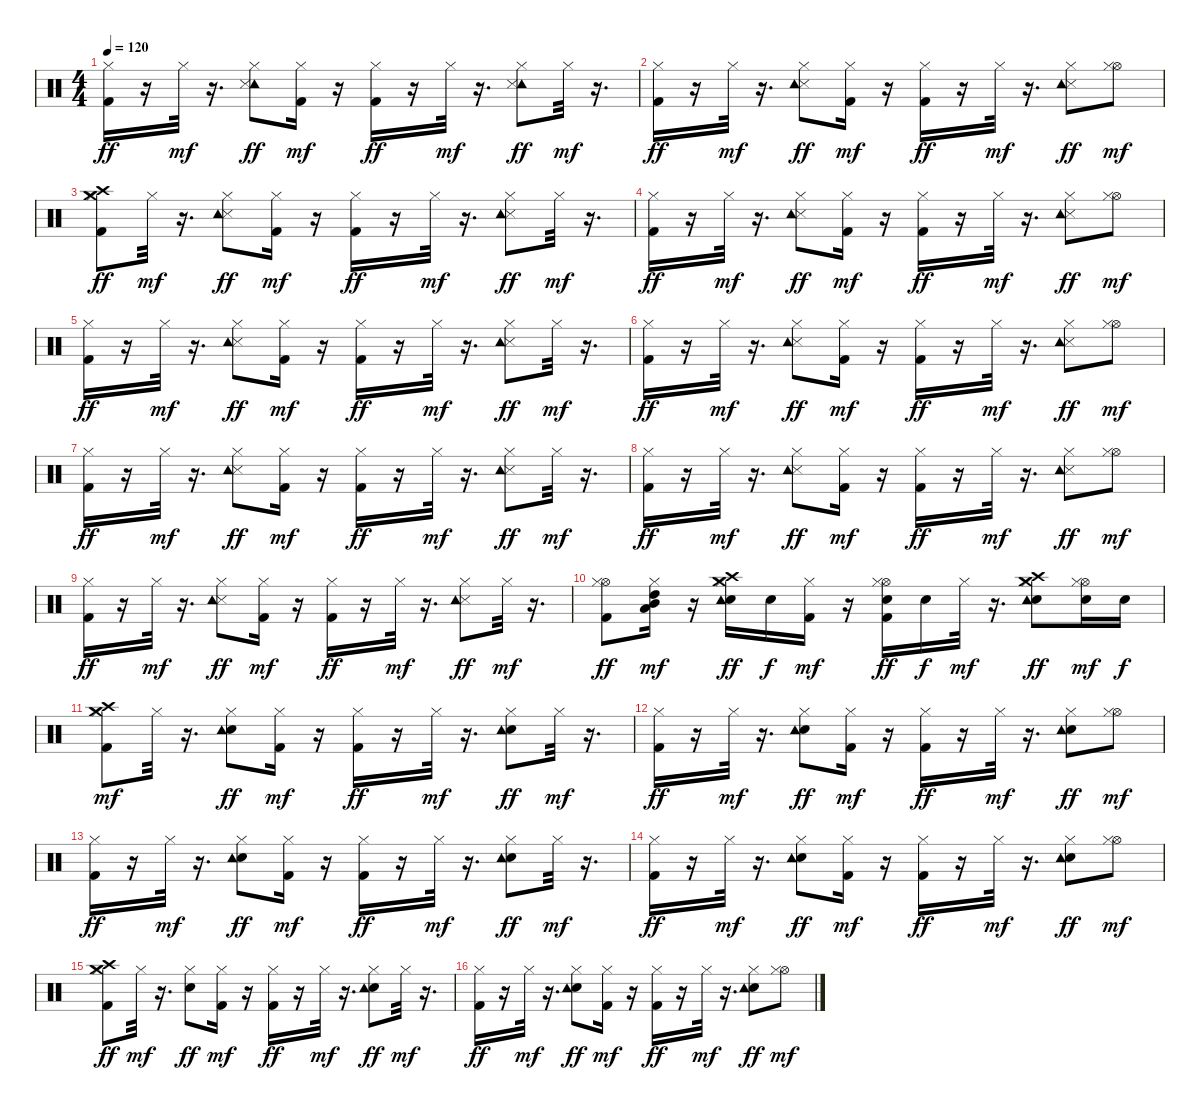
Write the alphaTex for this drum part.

\track "" {instrument percussion}
\staff {score}
\articulation defaults
\ts (4 4)
\tempo 120
\clef neutral
\ks c
("Hi-Hat (closed)" "Kick (hit) 2").16{dy ff} r.16 "Hi-Hat (closed)".32{dy mf} r.16{d} ("Tambourine (hit)" "Snare (side stick) 3" "Hi-Hat (closed)").8{dy ff} ("Hi-Hat (closed)" "Kick (hit) 2").16{dy mf} r.16 ("Hi-Hat (closed)" "Kick (hit) 2").16{dy ff} r.16 "Hi-Hat (closed)".32{dy mf} r.16{d} ("Tambourine (hit)" "Snare (side stick) 3" "Hi-Hat (closed)").8{dy ff} "Hi-Hat (closed)".32{dy mf} r.16{d} |
("Hi-Hat (closed)" "Kick (hit) 2").16{dy ff} r.16 "Hi-Hat (closed)".32{dy mf} r.16{d} ("Snare (side stick) 3" "Tambourine (hit)" "Hi-Hat (closed)").8{dy ff} ("Hi-Hat (closed)" "Kick (hit) 2").16{dy mf} r.16 ("Hi-Hat (closed)" "Kick (hit) 2").16{dy ff} r.16 "Hi-Hat (closed)".32{dy mf} r.16{d} ("Snare (side stick) 3" "Tambourine (hit)" "Hi-Hat (closed)").8{dy ff} ("Hi-Hat (open)" "Hi-Hat (closed)").8{dy mf} |
("Crash medium (hit)" "Crash high (hit)" "Hi-Hat (closed)" "Kick (hit) 2").8{dy ff} "Hi-Hat (closed)".32{dy mf} r.16{d} ("Snare (side stick) 3" "Tambourine (hit)" "Hi-Hat (closed)").8{dy ff} ("Hi-Hat (closed)" "Kick (hit) 2").16{dy mf} r.16 ("Hi-Hat (closed)" "Kick (hit) 2").16{dy ff} r.16 "Hi-Hat (closed)".32{dy mf} r.16{d} ("Snare (side stick) 3" "Tambourine (hit)" "Hi-Hat (closed)").8{dy ff} "Hi-Hat (closed)".32{dy mf} r.16{d} |
("Hi-Hat (closed)" "Kick (hit) 2").16{dy ff} r.16 "Hi-Hat (closed)".32{dy mf} r.16{d} ("Snare (side stick) 3" "Tambourine (hit)" "Hi-Hat (closed)").8{dy ff} ("Hi-Hat (closed)" "Kick (hit) 2").16{dy mf} r.16 ("Hi-Hat (closed)" "Kick (hit) 2").16{dy ff} r.16 "Hi-Hat (closed)".32{dy mf} r.16{d} ("Snare (side stick) 3" "Tambourine (hit)" "Hi-Hat (closed)").8{dy ff} ("Hi-Hat (open)" "Hi-Hat (closed)").8{dy mf} |
("Hi-Hat (closed)" "Kick (hit) 2").16{dy ff} r.16 "Hi-Hat (closed)".32{dy mf} r.16{d} ("Snare (side stick) 3" "Tambourine (hit)" "Hi-Hat (closed)").8{dy ff} ("Hi-Hat (closed)" "Kick (hit) 2").16{dy mf} r.16 ("Hi-Hat (closed)" "Kick (hit) 2").16{dy ff} r.16 "Hi-Hat (closed)".32{dy mf} r.16{d} ("Snare (side stick) 3" "Tambourine (hit)" "Hi-Hat (closed)").8{dy ff} "Hi-Hat (closed)".32{dy mf} r.16{d} |
("Hi-Hat (closed)" "Kick (hit) 2").16{dy ff} r.16 "Hi-Hat (closed)".32{dy mf} r.16{d} ("Snare (side stick) 3" "Tambourine (hit)" "Hi-Hat (closed)").8{dy ff} ("Hi-Hat (closed)" "Kick (hit) 2").16{dy mf} r.16 ("Hi-Hat (closed)" "Kick (hit) 2").16{dy ff} r.16 "Hi-Hat (closed)".32{dy mf} r.16{d} ("Snare (side stick) 3" "Tambourine (hit)" "Hi-Hat (closed)").8{dy ff} ("Hi-Hat (open)" "Hi-Hat (closed)").8{dy mf} |
("Hi-Hat (closed)" "Kick (hit) 2").16{dy ff} r.16 "Hi-Hat (closed)".32{dy mf} r.16{d} ("Snare (side stick) 3" "Tambourine (hit)" "Hi-Hat (closed)").8{dy ff} ("Hi-Hat (closed)" "Kick (hit) 2").16{dy mf} r.16 ("Hi-Hat (closed)" "Kick (hit) 2").16{dy ff} r.16 "Hi-Hat (closed)".32{dy mf} r.16{d} ("Snare (side stick) 3" "Tambourine (hit)" "Hi-Hat (closed)").8{dy ff} "Hi-Hat (closed)".32{dy mf} r.16{d} |
("Hi-Hat (closed)" "Kick (hit) 2").16{dy ff} r.16 "Hi-Hat (closed)".32{dy mf} r.16{d} ("Snare (side stick) 3" "Tambourine (hit)" "Hi-Hat (closed)").8{dy ff} ("Hi-Hat (closed)" "Kick (hit) 2").16{dy mf} r.16 ("Hi-Hat (closed)" "Kick (hit) 2").16{dy ff} r.16 "Hi-Hat (closed)".32{dy mf} r.16{d} ("Snare (side stick) 3" "Tambourine (hit)" "Hi-Hat (closed)").8{dy ff} ("Hi-Hat (open)" "Hi-Hat (closed)").8{dy mf} |
("Hi-Hat (closed)" "Kick (hit) 2").16{dy ff} r.16 "Hi-Hat (closed)".32{dy mf} r.16{d} ("Snare (side stick) 3" "Tambourine (hit)" "Hi-Hat (closed)").8{dy ff} ("Hi-Hat (closed)" "Kick (hit) 2").16{dy mf} r.16 ("Hi-Hat (closed)" "Kick (hit) 2").16{dy ff} r.16 "Hi-Hat (closed)".32{dy mf} r.16{d} ("Snare (side stick) 3" "Tambourine (hit)" "Hi-Hat (closed)").8{dy ff} "Hi-Hat (closed)".32{dy mf} r.16{d} |
("Hi-Hat (open)" "Hi-Hat (closed)" "Kick (hit) 2").8{dy ff} ("High Tom (hit)" "Mid Tom (hit)" "Low Tom (hit)" "Hi-Hat (closed)").16{dy mf} r.16 ("Crash medium (hit)" "Crash high (hit)" "Snare (hit) 2" "Tambourine (hit)" "Hi-Hat (closed)").16{dy ff} "Snare (hit) 2".16{dy f} ("Hi-Hat (closed)" "Kick (hit) 2").16{dy mf} r.16 ("Hi-Hat (open)" "Snare (hit) 2" "Hi-Hat (closed)" "Kick (hit) 2").16{dy ff} "Snare (hit) 2".16{dy f} "Hi-Hat (closed)".32{dy mf} r.16{d} ("Crash medium (hit)" "Crash high (hit)" "Snare (hit) 2" "Tambourine (hit)" "Hi-Hat (closed)").8{dy ff} ("Hi-Hat (open)" "Snare (hit) 2" "Hi-Hat (closed)").16{dy mf} "Snare (hit) 2".16{dy f} |
("Hi-Hat (closed)" "Crash medium (hit)" "Crash high (hit)" "Kick (hit) 2").8{dy mf} "Hi-Hat (closed)".32 r.16{d} ("Snare (hit) 2" "Tambourine (hit)" "Hi-Hat (closed)").8{dy ff} ("Hi-Hat (closed)" "Kick (hit) 2").16{dy mf} r.16 ("Hi-Hat (closed)" "Kick (hit) 2").16{dy ff} r.16 "Hi-Hat (closed)".32{dy mf} r.16{d} ("Snare (hit) 2" "Tambourine (hit)" "Hi-Hat (closed)").8{dy ff} "Hi-Hat (closed)".32{dy mf} r.16{d} |
("Hi-Hat (closed)" "Kick (hit) 2").16{dy ff} r.16 "Hi-Hat (closed)".32{dy mf} r.16{d} ("Snare (hit) 2" "Tambourine (hit)" "Hi-Hat (closed)").8{dy ff} ("Hi-Hat (closed)" "Kick (hit) 2").16{dy mf} r.16 ("Hi-Hat (closed)" "Kick (hit) 2").16{dy ff} r.16 "Hi-Hat (closed)".32{dy mf} r.16{d} ("Snare (hit) 2" "Tambourine (hit)" "Hi-Hat (closed)").8{dy ff} ("Hi-Hat (open)" "Hi-Hat (closed)").8{dy mf} |
("Hi-Hat (closed)" "Kick (hit) 2").16{dy ff} r.16 "Hi-Hat (closed)".32{dy mf} r.16{d} ("Snare (hit) 2" "Tambourine (hit)" "Hi-Hat (closed)").8{dy ff} ("Hi-Hat (closed)" "Kick (hit) 2").16{dy mf} r.16 ("Hi-Hat (closed)" "Kick (hit) 2").16{dy ff} r.16 "Hi-Hat (closed)".32{dy mf} r.16{d} ("Snare (hit) 2" "Tambourine (hit)" "Hi-Hat (closed)").8{dy ff} "Hi-Hat (closed)".32{dy mf} r.16{d} |
("Hi-Hat (closed)" "Kick (hit) 2").16{dy ff} r.16 "Hi-Hat (closed)".32{dy mf} r.16{d} ("Snare (hit) 2" "Tambourine (hit)" "Hi-Hat (closed)").8{dy ff} ("Hi-Hat (closed)" "Kick (hit) 2").16{dy mf} r.16 ("Hi-Hat (closed)" "Kick (hit) 2").16{dy ff} r.16 "Hi-Hat (closed)".32{dy mf} r.16{d} ("Snare (hit) 2" "Tambourine (hit)" "Hi-Hat (closed)").8{dy ff} ("Hi-Hat (open)" "Hi-Hat (closed)").8{dy mf} |
("Crash medium (hit)" "Crash high (hit)" "Hi-Hat (closed)" "Kick (hit) 2").8{dy ff} "Hi-Hat (closed)".32{dy mf} r.16{d} ("Snare (hit) 2" "Hi-Hat (closed)").8{dy ff} ("Hi-Hat (closed)" "Kick (hit) 2").16{dy mf} r.16 ("Hi-Hat (closed)" "Kick (hit) 2").16{dy ff} r.16 "Hi-Hat (closed)".32{dy mf} r.16{d} ("Snare (hit) 2" "Tambourine (hit)" "Hi-Hat (closed)").8{dy ff} "Hi-Hat (closed)".32{dy mf} r.16{d} |
("Hi-Hat (closed)" "Kick (hit) 2").16{dy ff} r.16 "Hi-Hat (closed)".32{dy mf} r.16{d} ("Snare (hit) 2" "Tambourine (hit)" "Hi-Hat (closed)").8{dy ff} ("Hi-Hat (closed)" "Kick (hit) 2").16{dy mf} r.16 ("Hi-Hat (closed)" "Kick (hit) 2").16{dy ff} r.16 "Hi-Hat (closed)".32{dy mf} r.16{d} ("Snare (hit) 2" "Tambourine (hit)" "Hi-Hat (closed)").8{dy ff} ("Hi-Hat (open)" "Hi-Hat (closed)").8{dy mf}
